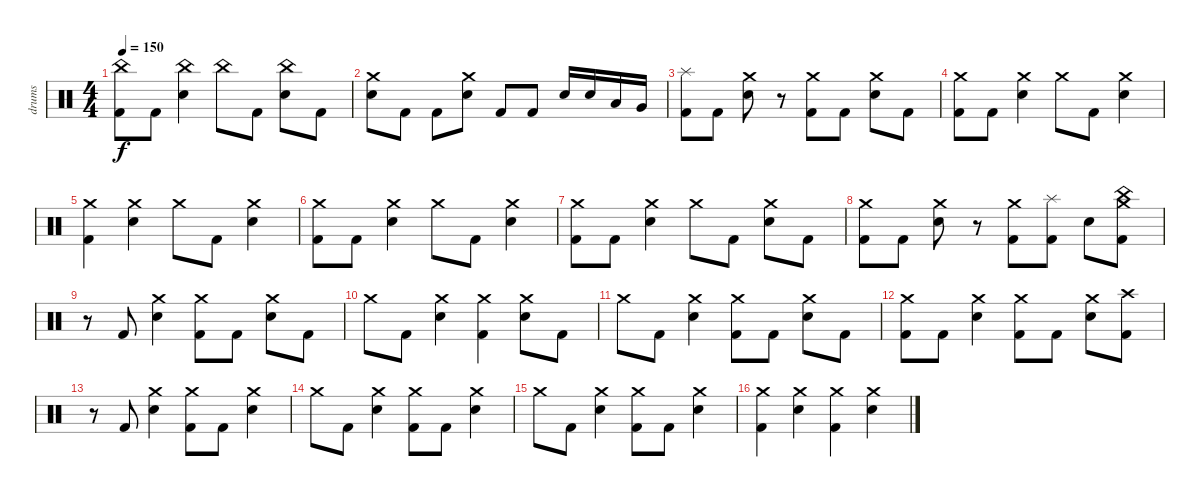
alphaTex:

\track ("drums" "drums") {instrument percussion}
\staff {score}
\articulation defaults
\ts (4 4)
\tempo 150
\clef neutral
\ks c
("China (hit)" "Kick (hit) 2").8{dy f} "Kick (hit) 2".8 ("China (hit)" "Electric Snare (hit)").4 "China (hit)".8 "Kick (hit) 2".8 ("China (hit)" "Electric Snare (hit)").8 "Kick (hit) 2".8 |
("Crash medium (hit)" "Electric Snare (hit)").8 "Kick (hit) 2".8 "Kick (hit) 2".8 ("Crash medium (hit)" "Electric Snare (hit)").8 "Kick (hit) 2".8 "Kick (hit) 2".8 "Electric Snare (hit)".16 "Electric Snare (hit)".16 "Low Tom (hit)".16 "Very Low Tom (hit)".16 |
("Splash (hit)" "Kick (hit) 2").8 "Kick (hit) 2".8 ("Crash medium (hit)" "Electric Snare (hit)").8 r.8 ("Crash medium (hit)" "Kick (hit) 2").8 "Kick (hit) 2".8 ("Crash medium (hit)" "Electric Snare (hit)").8 "Kick (hit) 2".8 |
("Crash medium (hit)" "Kick (hit) 2").8 "Kick (hit) 2".8 ("Crash medium (hit)" "Electric Snare (hit)").4 "Crash medium (hit)".8 "Kick (hit) 2".8 ("Crash medium (hit)" "Electric Snare (hit)").4 |
("Crash medium (hit)" "Kick (hit) 2").4 ("Crash medium (hit)" "Electric Snare (hit)").4 "Crash medium (hit)".8 "Kick (hit) 2".8 ("Crash medium (hit)" "Electric Snare (hit)").4 |
("Crash medium (hit)" "Kick (hit) 2").8 "Kick (hit) 2".8 ("Crash medium (hit)" "Electric Snare (hit)").4 "Crash medium (hit)".8 "Kick (hit) 2".8 ("Crash medium (hit)" "Electric Snare (hit)").4 |
("Crash medium (hit)" "Kick (hit) 2").8 "Kick (hit) 2".8 ("Crash medium (hit)" "Electric Snare (hit)").4 "Crash medium (hit)".8 "Kick (hit) 2".8 ("Crash medium (hit)" "Electric Snare (hit)").8 "Kick (hit) 2".8 |
("Crash medium (hit)" "Kick (hit) 2").8 "Kick (hit) 2".8 ("Crash medium (hit)" "Electric Snare (hit)").8 r.8 ("Crash medium (hit)" "Kick (hit) 2").8 ("Splash (hit)" "Kick (hit) 2").8 "Electric Snare (hit)".8 ("China (hit)" "Crash medium (hit)" "Kick (hit) 2").8 |
r.8 "Kick (hit) 2".8 ("Crash medium (hit)" "Electric Snare (hit)").4 ("Crash medium (hit)" "Kick (hit) 2").8 "Kick (hit) 2".8 ("Crash medium (hit)" "Electric Snare (hit)").8 "Kick (hit) 2".8 |
"Crash medium (hit)".8 "Kick (hit) 2".8 ("Crash medium (hit)" "Electric Snare (hit)").4 ("Crash medium (hit)" "Kick (hit) 2").4 ("Crash medium (hit)" "Electric Snare (hit)").8 "Kick (hit) 2".8 |
"Crash medium (hit)".8 "Kick (hit) 2".8 ("Crash medium (hit)" "Electric Snare (hit)").4 ("Crash medium (hit)" "Kick (hit) 2").8 "Kick (hit) 2".8 ("Crash medium (hit)" "Electric Snare (hit)").8 "Kick (hit) 2".8 |
("Crash medium (hit)" "Kick (hit) 2").8 "Kick (hit) 2".8 ("Crash medium (hit)" "Electric Snare (hit)").4 ("Crash medium (hit)" "Kick (hit) 2").8 "Kick (hit) 2".8 ("Crash medium (hit)" "Electric Snare (hit)").8 ("Crash high (hit)" "Kick (hit) 2").8 |
r.8 "Kick (hit) 2".8 ("Crash medium (hit)" "Electric Snare (hit)").4 ("Crash medium (hit)" "Kick (hit) 2").8 "Kick (hit) 2".8 ("Crash medium (hit)" "Electric Snare (hit)").4 |
"Crash medium (hit)".8 "Kick (hit) 2".8 ("Crash medium (hit)" "Electric Snare (hit)").4 ("Crash medium (hit)" "Kick (hit) 2").8 "Kick (hit) 2".8 ("Crash medium (hit)" "Electric Snare (hit)").4 |
"Crash medium (hit)".8 "Kick (hit) 2".8 ("Crash medium (hit)" "Electric Snare (hit)").4 ("Crash medium (hit)" "Kick (hit) 2").8 "Kick (hit) 2".8 ("Crash medium (hit)" "Electric Snare (hit)").4 |
("Crash medium (hit)" "Kick (hit) 2").4 ("Crash medium (hit)" "Electric Snare (hit)").4 ("Crash medium (hit)" "Kick (hit) 2").4 ("Crash medium (hit)" "Electric Snare (hit)").4
